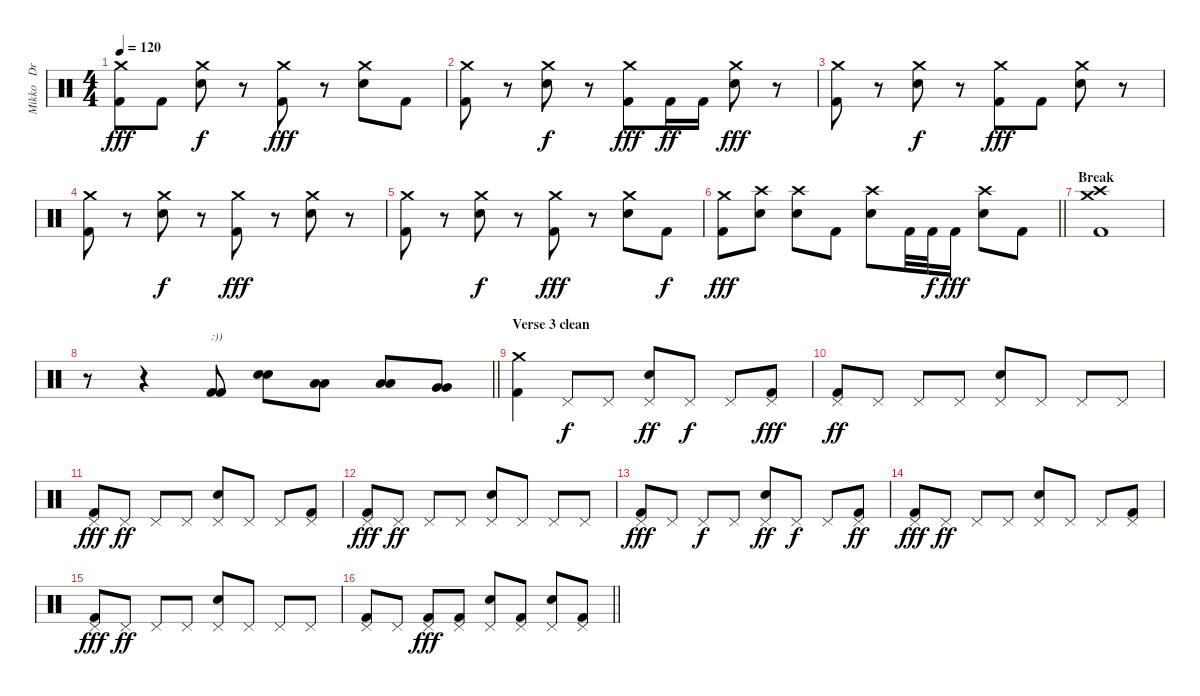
\track ("Mikko   Drums" "Mikko   Dr") {instrument percussion}
\staff {score}
\articulation defaults
\ts (4 4)
\tempo 120
\clef neutral
\ks c
("Crash medium (hit)" "Kick (hit) 2").8{dy fff} "Kick (hit) 2".8 ("Crash medium (hit)" "Snare (hit) 2").8{dy f} r.8 ("Crash medium (hit)" "Kick (hit) 2").8{dy fff} r.8 ("Crash medium (hit)" "Snare (hit) 2").8 "Kick (hit) 2".8 |
("Crash medium (hit)" "Kick (hit) 2").8 r.8 ("Crash medium (hit)" "Snare (hit) 2").8{dy f} r.8 ("Crash medium (hit)" "Kick (hit) 2").8{dy fff} "Kick (hit) 2".16{dy ff} "Kick (hit) 2".16 ("Crash medium (hit)" "Snare (hit) 2").8{dy fff} r.8 |
("Crash medium (hit)" "Kick (hit) 2").8 r.8 ("Crash medium (hit)" "Snare (hit) 2").8{dy f} r.8 ("Crash medium (hit)" "Kick (hit) 2").8{dy fff} "Kick (hit) 2".8 ("Crash medium (hit)" "Snare (hit) 2").8 r.8 |
("Crash medium (hit)" "Kick (hit) 2").8 r.8 ("Crash medium (hit)" "Snare (hit) 2").8{dy f} r.8 ("Crash medium (hit)" "Kick (hit) 2").8{dy fff} r.8 ("Crash medium (hit)" "Snare (hit) 2").8 r.8 |
("Crash medium (hit)" "Kick (hit) 2").8 r.8 ("Crash medium (hit)" "Snare (hit) 2").8{dy f} r.8 ("Crash medium (hit)" "Kick (hit) 2").8{dy fff} r.8 ("Crash medium (hit)" "Snare (hit) 2").8 "Kick (hit) 2".8{dy f} |
\barLineRight lightlight
("Crash medium (hit)" "Kick (hit) 2").8{dy fff} ("Crash high (hit)" "Snare (hit) 2").8 ("Crash high (hit)" "Snare (hit) 2").8 "Kick (hit) 2".8 ("Crash high (hit)" "Snare (hit) 2").8 "Kick (hit) 2".32 "Kick (hit) 2".32{dy f} "Kick (hit) 2".16{dy fff} ("Crash high (hit)" "Snare (hit) 2").8 "Kick (hit) 2".8 |
\section ("" "Break")
("Crash medium (hit)" "Crash high (hit)" "Kick (hit) 2").1 |
\barLineRight lightlight
r.8 r.4 ("Kick (hit) 2" "Kick (hit) 2").8{bd 120 txt ":))"} ("Snare (hit) 2" "Snare (hit) 2").8{bd 120} ("Low Tom (hit)" "Low Tom (hit)").8{bd 120} ("Low Tom (hit)" "Low Tom (hit)").8{bd 120} ("Very Low Tom (hit)" "Very Low Tom (hit)").8{bd 120} |
\section ("" "Verse 3 clean")
("Crash medium (hit)" "Kick (hit) 2").4 "Pedal Hi-Hat (hit)".8{dy f} "Pedal Hi-Hat (hit)".8 ("Pedal Hi-Hat (hit)" "Snare (hit) 2").8{dy ff} "Pedal Hi-Hat (hit)".8{dy f} "Pedal Hi-Hat (hit)".8 ("Pedal Hi-Hat (hit)" "Kick (hit) 2").8{dy fff} |
("Pedal Hi-Hat (hit)" "Kick (hit) 2").8{dy ff} "Pedal Hi-Hat (hit)".8 "Pedal Hi-Hat (hit)".8 "Pedal Hi-Hat (hit)".8 ("Pedal Hi-Hat (hit)" "Snare (hit) 2").8 "Pedal Hi-Hat (hit)".8 "Pedal Hi-Hat (hit)".8 "Pedal Hi-Hat (hit)".8 |
("Pedal Hi-Hat (hit)" "Kick (hit) 2").8{dy fff} "Pedal Hi-Hat (hit)".8{dy ff} "Pedal Hi-Hat (hit)".8 "Pedal Hi-Hat (hit)".8 ("Pedal Hi-Hat (hit)" "Snare (hit) 2").8 "Pedal Hi-Hat (hit)".8 "Pedal Hi-Hat (hit)".8 ("Pedal Hi-Hat (hit)" "Kick (hit) 2").8 |
("Pedal Hi-Hat (hit)" "Kick (hit) 2").8{dy fff} "Pedal Hi-Hat (hit)".8{dy ff} "Pedal Hi-Hat (hit)".8 "Pedal Hi-Hat (hit)".8 ("Pedal Hi-Hat (hit)" "Snare (hit) 2").8 "Pedal Hi-Hat (hit)".8 "Pedal Hi-Hat (hit)".8 "Pedal Hi-Hat (hit)".8 |
("Pedal Hi-Hat (hit)" "Kick (hit) 2").8{dy fff} "Pedal Hi-Hat (hit)".8 "Pedal Hi-Hat (hit)".8{dy f} "Pedal Hi-Hat (hit)".8 ("Pedal Hi-Hat (hit)" "Snare (hit) 2").8{dy ff} "Pedal Hi-Hat (hit)".8{dy f} "Pedal Hi-Hat (hit)".8 ("Pedal Hi-Hat (hit)" "Kick (hit) 2").8{dy ff} |
("Pedal Hi-Hat (hit)" "Kick (hit) 2").8{dy fff} "Pedal Hi-Hat (hit)".8{dy ff} "Pedal Hi-Hat (hit)".8 "Pedal Hi-Hat (hit)".8 ("Pedal Hi-Hat (hit)" "Snare (hit) 2").8 "Pedal Hi-Hat (hit)".8 "Pedal Hi-Hat (hit)".8 ("Pedal Hi-Hat (hit)" "Kick (hit) 2").8 |
("Pedal Hi-Hat (hit)" "Kick (hit) 2").8{dy fff} "Pedal Hi-Hat (hit)".8{dy ff} "Pedal Hi-Hat (hit)".8 "Pedal Hi-Hat (hit)".8 ("Pedal Hi-Hat (hit)" "Snare (hit) 2").8 "Pedal Hi-Hat (hit)".8 "Pedal Hi-Hat (hit)".8 "Pedal Hi-Hat (hit)".8 |
\barLineRight lightlight
("Pedal Hi-Hat (hit)" "Kick (hit) 2").8 "Pedal Hi-Hat (hit)".8 ("Pedal Hi-Hat (hit)" "Kick (hit) 2").8{dy fff} ("Pedal Hi-Hat (hit)" "Kick (hit) 2").8 ("Pedal Hi-Hat (hit)" "Snare (hit) 2").8 ("Pedal Hi-Hat (hit)" "Kick (hit) 2").8 ("Pedal Hi-Hat (hit)" "Snare (hit) 2").8 ("Pedal Hi-Hat (hit)" "Kick (hit) 2").8
